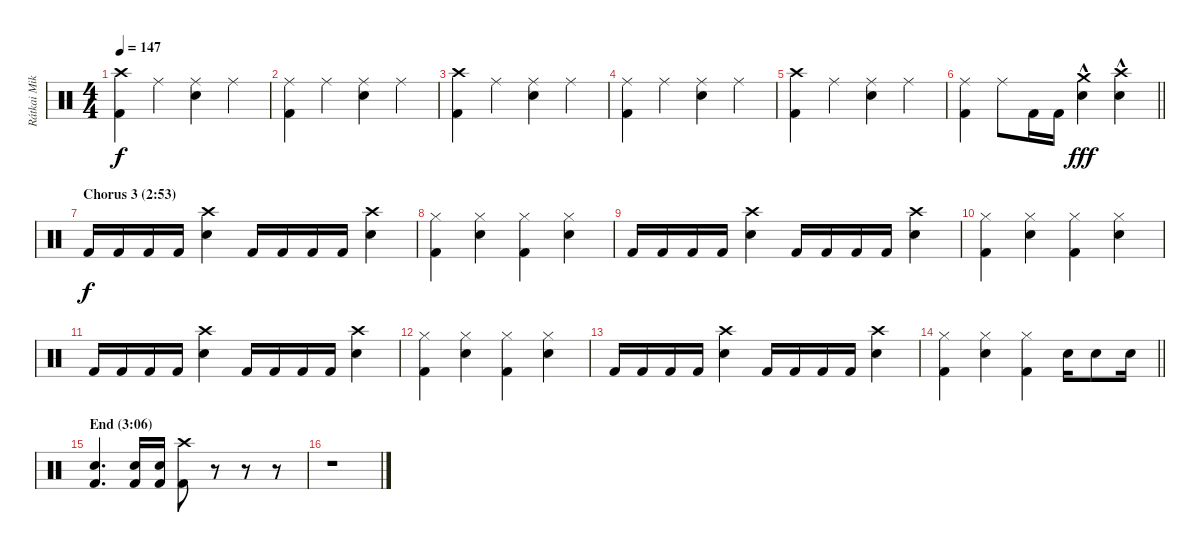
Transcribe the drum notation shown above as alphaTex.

\track ("Rátkai Miklós [Drums]" "Rátkai Mik") {instrument percussion}
\staff {score}
\articulation defaults
\ts (4 4)
\tempo 147
\clef neutral
\ks c
("Crash high (hit)" "Kick (hit) 2").4{dy f} "Ride (middle)".4 ("Ride (middle)" "Electric Snare (hit)").4 "Ride (middle)".4 |
("Ride (middle)" "Kick (hit) 2").4 "Ride (middle)".4 ("Ride (middle)" "Electric Snare (hit)").4 "Ride (middle)".4 |
("Crash high (hit)" "Kick (hit) 2").4 "Ride (middle)".4 ("Ride (middle)" "Electric Snare (hit)").4 "Ride (middle)".4 |
("Ride (middle)" "Kick (hit) 2").4 "Ride (middle)".4 ("Ride (middle)" "Electric Snare (hit)").4 "Ride (middle)".4 |
("Crash high (hit)" "Kick (hit) 2").4 "Ride (middle)".4 ("Ride (middle)" "Electric Snare (hit)").4 "Ride (middle)".4 |
\barLineRight lightlight
("Ride (middle)" "Kick (hit) 2").4 "Ride (middle)".8 "Kick (hit) 2".16 "Kick (hit) 2".16 ("Crash medium (hit)"{hac} "Electric Snare (hit)").4{dy fff} ("Crash high (hit)"{hac} "Electric Snare (hit)").4 |
\section ("" "Chorus 3 (2:53)")
"Kick (hit) 2".16{dy f} "Kick (hit) 2".16 "Kick (hit) 2".16 "Kick (hit) 2".16 ("Crash high (hit)" "Electric Snare (hit)").4 "Kick (hit) 2".16 "Kick (hit) 2".16 "Kick (hit) 2".16 "Kick (hit) 2".16 ("Crash high (hit)" "Electric Snare (hit)").4 |
("Hi-Hat (closed)" "Kick (hit) 2").4 ("Hi-Hat (closed)" "Electric Snare (hit)").4 ("Hi-Hat (closed)" "Kick (hit) 2").4 ("Hi-Hat (closed)" "Electric Snare (hit)").4 |
"Kick (hit) 2".16 "Kick (hit) 2".16 "Kick (hit) 2".16 "Kick (hit) 2".16 ("Crash high (hit)" "Electric Snare (hit)").4 "Kick (hit) 2".16 "Kick (hit) 2".16 "Kick (hit) 2".16 "Kick (hit) 2".16 ("Crash high (hit)" "Electric Snare (hit)").4 |
("Hi-Hat (closed)" "Kick (hit) 2").4 ("Hi-Hat (closed)" "Electric Snare (hit)").4 ("Hi-Hat (closed)" "Kick (hit) 2").4 ("Hi-Hat (closed)" "Electric Snare (hit)").4 |
"Kick (hit) 2".16 "Kick (hit) 2".16 "Kick (hit) 2".16 "Kick (hit) 2".16 ("Crash high (hit)" "Electric Snare (hit)").4 "Kick (hit) 2".16 "Kick (hit) 2".16 "Kick (hit) 2".16 "Kick (hit) 2".16 ("Crash high (hit)" "Electric Snare (hit)").4 |
("Hi-Hat (closed)" "Kick (hit) 2").4 ("Hi-Hat (closed)" "Electric Snare (hit)").4 ("Hi-Hat (closed)" "Kick (hit) 2").4 ("Hi-Hat (closed)" "Electric Snare (hit)").4 |
"Kick (hit) 2".16 "Kick (hit) 2".16 "Kick (hit) 2".16 "Kick (hit) 2".16 ("Crash high (hit)" "Electric Snare (hit)").4 "Kick (hit) 2".16 "Kick (hit) 2".16 "Kick (hit) 2".16 "Kick (hit) 2".16 ("Crash high (hit)" "Electric Snare (hit)").4 |
\barLineRight lightlight
("Hi-Hat (closed)" "Kick (hit) 2").4 ("Hi-Hat (closed)" "Electric Snare (hit)").4 ("Hi-Hat (closed)" "Kick (hit) 2").4 "Electric Snare (hit)".16 "Electric Snare (hit)".8 "Electric Snare (hit)".16 |
\section ("" "End (3:06)")
("Electric Snare (hit)" "Kick (hit) 2").4{d} ("Electric Snare (hit)" "Kick (hit) 2").16 ("Electric Snare (hit)" "Kick (hit) 2").16 ("Crash high (hit)" "Kick (hit) 2").8 r.8{volume 0} r.8 r.8 |
r.1
